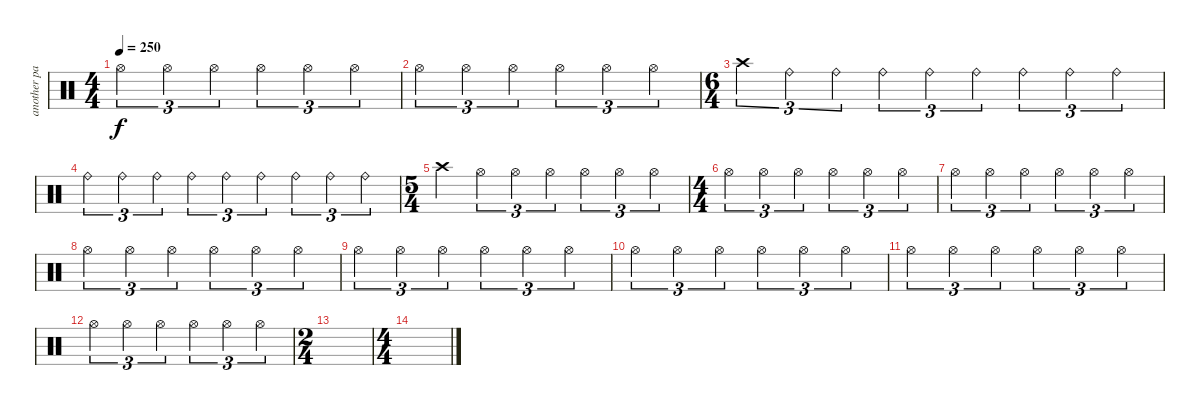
\track ("another part of metti" "another pa") {instrument percussion}
\staff {score}
\articulation defaults
\ts (4 4)
\tempo 250
\clef neutral
\ks c "Hi-Hat (open)".4{tu (3 2) dy f} "Hi-Hat (open)".4{tu (3 2)} "Hi-Hat (open)".4{tu (3 2)} "Hi-Hat (open)".4{tu (3 2)} "Hi-Hat (open)".4{tu (3 2)} "Hi-Hat (open)".4{tu (3 2)}
|
"Hi-Hat (open)".4{tu (3 2)} "Hi-Hat (open)".4{tu (3 2)} "Hi-Hat (open)".4{tu (3 2)} "Hi-Hat (open)".4{tu (3 2)} "Hi-Hat (open)".4{tu (3 2)} "Hi-Hat (open)".4{tu (3 2)} |
\ts (6 4)
"Crash high (hit)".4{tu (3 2)} "Ride (bell)".4{tu (3 2)} "Ride (bell)".4{tu (3 2)} "Ride (bell)".4{tu (3 2)} "Ride (bell)".4{tu (3 2)} "Ride (bell)".4{tu (3 2)} "Ride (bell)".4{tu (3 2)} "Ride (bell)".4{tu (3 2)} "Ride (bell)".4{tu (3 2)} |
"Ride (bell)".4{tu (3 2)} "Ride (bell)".4{tu (3 2)} "Ride (bell)".4{tu (3 2)} "Ride (bell)".4{tu (3 2)} "Ride (bell)".4{tu (3 2)} "Ride (bell)".4{tu (3 2)} "Ride (bell)".4{tu (3 2)} "Ride (bell)".4{tu (3 2)} "Ride (bell)".4{tu (3 2)} |
\ts (5 4)
"Crash high (hit)".4 "Hi-Hat (open)".4{tu (3 2)} "Hi-Hat (open)".4{tu (3 2)} "Hi-Hat (open)".4{tu (3 2)} "Hi-Hat (open)".4{tu (3 2)} "Hi-Hat (open)".4{tu (3 2)} "Hi-Hat (open)".4{tu (3 2)} |
\ts (4 4)
"Hi-Hat (open)".4{tu (3 2)} "Hi-Hat (open)".4{tu (3 2)} "Hi-Hat (open)".4{tu (3 2)} "Hi-Hat (open)".4{tu (3 2)} "Hi-Hat (open)".4{tu (3 2)} "Hi-Hat (open)".4{tu (3 2)} |
"Hi-Hat (open)".4{tu (3 2)} "Hi-Hat (open)".4{tu (3 2)} "Hi-Hat (open)".4{tu (3 2)} "Hi-Hat (open)".4{tu (3 2)} "Hi-Hat (open)".4{tu (3 2)} "Hi-Hat (open)".4{tu (3 2)} |
"Hi-Hat (open)".4{tu (3 2)} "Hi-Hat (open)".4{tu (3 2)} "Hi-Hat (open)".4{tu (3 2)} "Hi-Hat (open)".4{tu (3 2)} "Hi-Hat (open)".4{tu (3 2)} "Hi-Hat (open)".4{tu (3 2)} |
"Hi-Hat (open)".4{tu (3 2)} "Hi-Hat (open)".4{tu (3 2)} "Hi-Hat (open)".4{tu (3 2)} "Hi-Hat (open)".4{tu (3 2)} "Hi-Hat (open)".4{tu (3 2)} "Hi-Hat (open)".4{tu (3 2)} |
"Hi-Hat (open)".4{tu (3 2)} "Hi-Hat (open)".4{tu (3 2)} "Hi-Hat (open)".4{tu (3 2)} "Hi-Hat (open)".4{tu (3 2)} "Hi-Hat (open)".4{tu (3 2)} "Hi-Hat (open)".4{tu (3 2)} |
"Hi-Hat (open)".4{tu (3 2)} "Hi-Hat (open)".4{tu (3 2)} "Hi-Hat (open)".4{tu (3 2)} "Hi-Hat (open)".4{tu (3 2)} "Hi-Hat (open)".4{tu (3 2)} "Hi-Hat (open)".4{tu (3 2)} |
"Hi-Hat (open)".4{tu (3 2)} "Hi-Hat (open)".4{tu (3 2)} "Hi-Hat (open)".4{tu (3 2)} "Hi-Hat (open)".4{tu (3 2)} "Hi-Hat (open)".4{tu (3 2)} "Hi-Hat (open)".4{tu (3 2)} |
\ts (2 4)
|
\ts (4 4)
